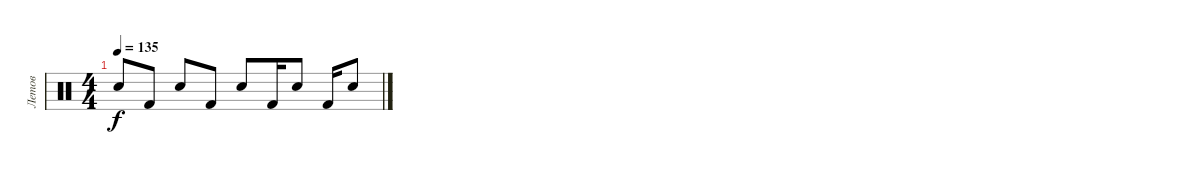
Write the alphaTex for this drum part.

\track ("Летов" "Летов") {instrument percussion}
\staff {score}
\articulation defaults
\ts (4 4)
\tempo 135
\clef neutral
\ks c "Electric Snare (hit)".8{dy f} "Kick (hit) 2".8 "Electric Snare (hit)".8 "Kick (hit) 2".8 "Electric Snare (hit)".8 "Kick (hit) 2".16 "Electric Snare (hit)".8 "Kick (hit) 2".16 "Electric Snare (hit)".8
